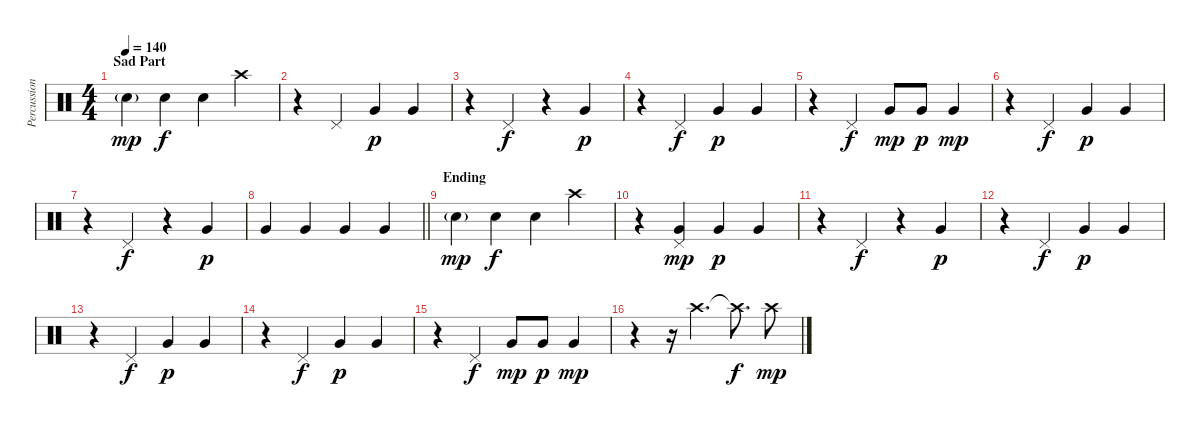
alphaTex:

\track ("Percussions" "Percussion") {instrument percussion}
\staff {score}
\articulation defaults
\ts (4 4)
\section ("" "Sad Part")
\tempo 140
\clef neutral
\ks c "Electric Snare (hit)"{g}.4{dy mp} "Electric Snare (hit)".4{dy f} "Electric Snare (hit)".4 "Crash high (hit)".4
|
r.4 "Pedal Hi-Hat (hit)".4 "Very Low Tom (hit)".4{dy p} "Very Low Tom (hit)".4 |
r.4 "Pedal Hi-Hat (hit)".4{dy f} r.4 "Very Low Tom (hit)".4{dy p} |
r.4 "Pedal Hi-Hat (hit)".4{dy f} "Very Low Tom (hit)".4{dy p} "Very Low Tom (hit)".4 |
r.4 "Pedal Hi-Hat (hit)".4{dy f} "Very Low Tom (hit)".8{dy mp} "Very Low Tom (hit)".8{dy p} "Very Low Tom (hit)".4{dy mp} |
r.4 "Pedal Hi-Hat (hit)".4{dy f} "Very Low Tom (hit)".4{dy p} "Very Low Tom (hit)".4 |
r.4 "Pedal Hi-Hat (hit)".4{dy f} r.4 "Very Low Tom (hit)".4{dy p} |
\barLineRight lightlight "Very Low Tom (hit)".4 "Very Low Tom (hit)".4 "Very Low Tom (hit)".4 "Very Low Tom (hit)".4
|
\section ("" "Ending")
"Electric Snare (hit)"{g}.4{dy mp} "Electric Snare (hit)".4{dy f} "Electric Snare (hit)".4 "Crash high (hit)".4 |
r.4 ("Pedal Hi-Hat (hit)" "Very Low Tom (hit)").4{dy mp} "Very Low Tom (hit)".4{dy p} "Very Low Tom (hit)".4 |
r.4 "Pedal Hi-Hat (hit)".4{dy f} r.4 "Very Low Tom (hit)".4{dy p} |
r.4 "Pedal Hi-Hat (hit)".4{dy f} "Very Low Tom (hit)".4{dy p} "Very Low Tom (hit)".4 |
r.4 "Pedal Hi-Hat (hit)".4{dy f} "Very Low Tom (hit)".4{dy p} "Very Low Tom (hit)".4 |
r.4 "Pedal Hi-Hat (hit)".4{dy f} "Very Low Tom (hit)".4{dy p} "Very Low Tom (hit)".4 |
r.4 "Pedal Hi-Hat (hit)".4{dy f} "Very Low Tom (hit)".8{dy mp} "Very Low Tom (hit)".8{dy p} "Very Low Tom (hit)".4{dy mp} |
r.4 r.16 "Crash high (hit)".4{d} "Crash high (hit)"{t}.8{d dy f} "Crash high (hit)".8{dy mp}
